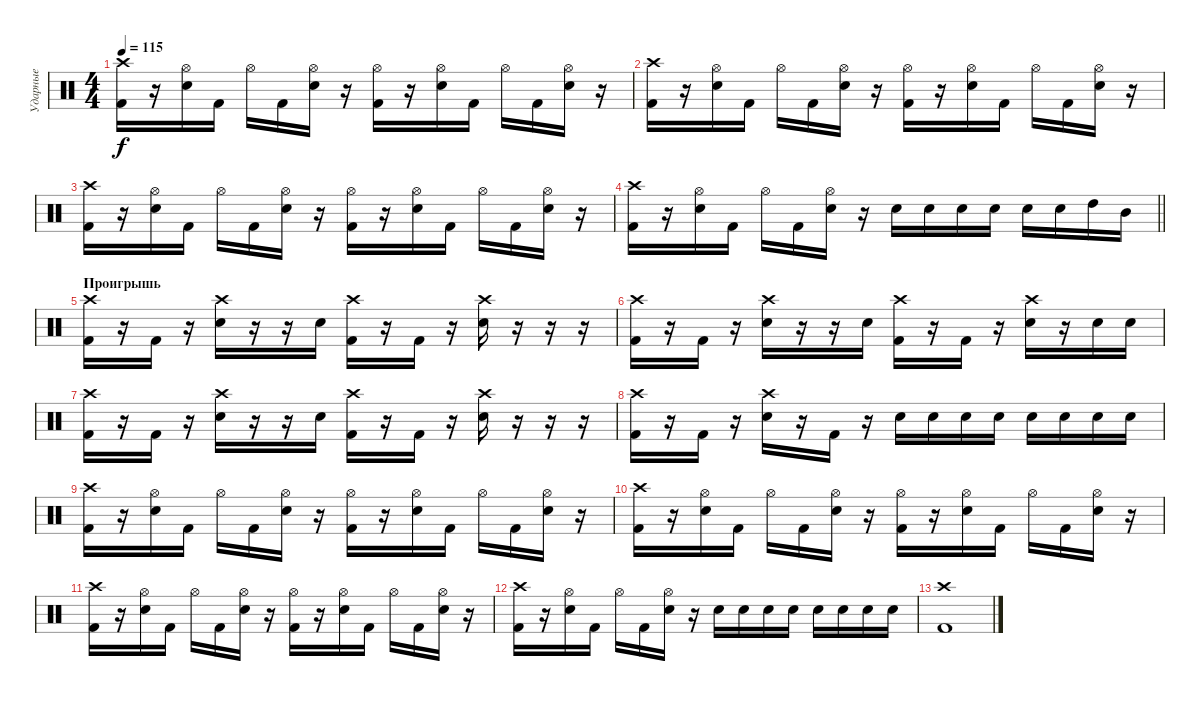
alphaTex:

\track ("Ударные" "Ударные") {instrument percussion}
\staff {score}
\articulation defaults
\ts (4 4)
\tempo 115
\clef neutral
\ks c
("Kick (hit) 2" "Crash high (hit)").16{dy f} r.16 ("Electric Snare (hit)" "Hi-Hat (open)").16 "Kick (hit) 2".16 "Hi-Hat (open)".16 "Kick (hit) 2".16 ("Electric Snare (hit)" "Hi-Hat (open)").16 r.16 ("Kick (hit) 2" "Hi-Hat (open)").16 r.16 ("Electric Snare (hit)" "Hi-Hat (open)").16 "Kick (hit) 2".16 "Hi-Hat (open)".16 "Kick (hit) 2".16 ("Electric Snare (hit)" "Hi-Hat (open)").16 r.16 |
("Kick (hit) 2" "Crash high (hit)").16 r.16 ("Electric Snare (hit)" "Hi-Hat (open)").16 "Kick (hit) 2".16 "Hi-Hat (open)".16 "Kick (hit) 2".16 ("Electric Snare (hit)" "Hi-Hat (open)").16 r.16 ("Kick (hit) 2" "Hi-Hat (open)").16 r.16 ("Electric Snare (hit)" "Hi-Hat (open)").16 "Kick (hit) 2".16 "Hi-Hat (open)".16 "Kick (hit) 2".16 ("Electric Snare (hit)" "Hi-Hat (open)").16 r.16 |
("Kick (hit) 2" "Crash high (hit)").16 r.16 ("Electric Snare (hit)" "Hi-Hat (open)").16 "Kick (hit) 2".16 "Hi-Hat (open)".16 "Kick (hit) 2".16 ("Electric Snare (hit)" "Hi-Hat (open)").16 r.16 ("Kick (hit) 2" "Hi-Hat (open)").16 r.16 ("Electric Snare (hit)" "Hi-Hat (open)").16 "Kick (hit) 2".16 "Hi-Hat (open)".16 "Kick (hit) 2".16 ("Electric Snare (hit)" "Hi-Hat (open)").16 r.16 |
\barLineRight lightlight
("Kick (hit) 2" "Crash high (hit)").16 r.16 ("Electric Snare (hit)" "Hi-Hat (open)").16 "Kick (hit) 2".16 "Hi-Hat (open)".16 "Kick (hit) 2".16 ("Electric Snare (hit)" "Hi-Hat (open)").16 r.16 "Electric Snare (hit)".16 "Electric Snare (hit)".16 "Electric Snare (hit)".16 "Electric Snare (hit)".16 "Electric Snare (hit)".16 "Electric Snare (hit)".16 "High Tom (hit)".16 "Mid Tom (hit)".16 |
\section ("" "Проигрышь")
("Kick (hit) 2" "Crash high (hit)").16 r.16 "Kick (hit) 2".16 r.16 ("Electric Snare (hit)" "Crash high (hit)").16 r.16 r.16 "Electric Snare (hit)".16 ("Kick (hit) 2" "Crash high (hit)").16 r.16 "Kick (hit) 2".16 r.16 ("Electric Snare (hit)" "Crash high (hit)").16 r.16 r.16 r.16 |
("Kick (hit) 2" "Crash high (hit)").16 r.16 "Kick (hit) 2".16 r.16 ("Electric Snare (hit)" "Crash high (hit)").16 r.16 r.16 "Electric Snare (hit)".16 ("Kick (hit) 2" "Crash high (hit)").16 r.16 "Kick (hit) 2".16 r.16 ("Electric Snare (hit)" "Crash high (hit)").16 r.16 "Electric Snare (hit)".16 "Electric Snare (hit)".16 |
("Kick (hit) 2" "Crash high (hit)").16 r.16 "Kick (hit) 2".16 r.16 ("Electric Snare (hit)" "Crash high (hit)").16 r.16 r.16 "Electric Snare (hit)".16 ("Kick (hit) 2" "Crash high (hit)").16 r.16 "Kick (hit) 2".16 r.16 ("Electric Snare (hit)" "Crash high (hit)").16 r.16 r.16 r.16 |
("Kick (hit) 2" "Crash high (hit)").16 r.16 "Kick (hit) 2".16 r.16 ("Electric Snare (hit)" "Crash high (hit)").16 r.16 "Kick (hit) 2".16 r.16 "Electric Snare (hit)".16 "Electric Snare (hit)".16 "Electric Snare (hit)".16 "Electric Snare (hit)".16 "Electric Snare (hit)".16 "Electric Snare (hit)".16 "Electric Snare (hit)".16 "Electric Snare (hit)".16 |
("Kick (hit) 2" "Crash high (hit)").16 r.16 ("Electric Snare (hit)" "Hi-Hat (open)").16 "Kick (hit) 2".16 "Hi-Hat (open)".16 "Kick (hit) 2".16 ("Electric Snare (hit)" "Hi-Hat (open)").16 r.16 ("Kick (hit) 2" "Hi-Hat (open)").16 r.16 ("Electric Snare (hit)" "Hi-Hat (open)").16 "Kick (hit) 2".16 "Hi-Hat (open)".16 "Kick (hit) 2".16 ("Electric Snare (hit)" "Hi-Hat (open)").16 r.16 |
("Kick (hit) 2" "Crash high (hit)").16 r.16 ("Electric Snare (hit)" "Hi-Hat (open)").16 "Kick (hit) 2".16 "Hi-Hat (open)".16 "Kick (hit) 2".16 ("Electric Snare (hit)" "Hi-Hat (open)").16 r.16 ("Kick (hit) 2" "Hi-Hat (open)").16 r.16 ("Electric Snare (hit)" "Hi-Hat (open)").16 "Kick (hit) 2".16 "Hi-Hat (open)".16 "Kick (hit) 2".16 ("Electric Snare (hit)" "Hi-Hat (open)").16 r.16 |
("Kick (hit) 2" "Crash high (hit)").16 r.16 ("Electric Snare (hit)" "Hi-Hat (open)").16 "Kick (hit) 2".16 "Hi-Hat (open)".16 "Kick (hit) 2".16 ("Electric Snare (hit)" "Hi-Hat (open)").16 r.16 ("Kick (hit) 2" "Hi-Hat (open)").16 r.16 ("Electric Snare (hit)" "Hi-Hat (open)").16 "Kick (hit) 2".16 "Hi-Hat (open)".16 "Kick (hit) 2".16 ("Electric Snare (hit)" "Hi-Hat (open)").16 r.16 |
("Kick (hit) 2" "Crash high (hit)").16 r.16 ("Electric Snare (hit)" "Hi-Hat (open)").16 "Kick (hit) 2".16 "Hi-Hat (open)".16 "Kick (hit) 2".16 ("Electric Snare (hit)" "Hi-Hat (open)").16 r.16 "Electric Snare (hit)".16 "Electric Snare (hit)".16 "Electric Snare (hit)".16 "Electric Snare (hit)".16 "Electric Snare (hit)".16 "Electric Snare (hit)".16 "Electric Snare (hit)".16 "Electric Snare (hit)".16 |
("Kick (hit) 2" "Crash high (hit)").1
